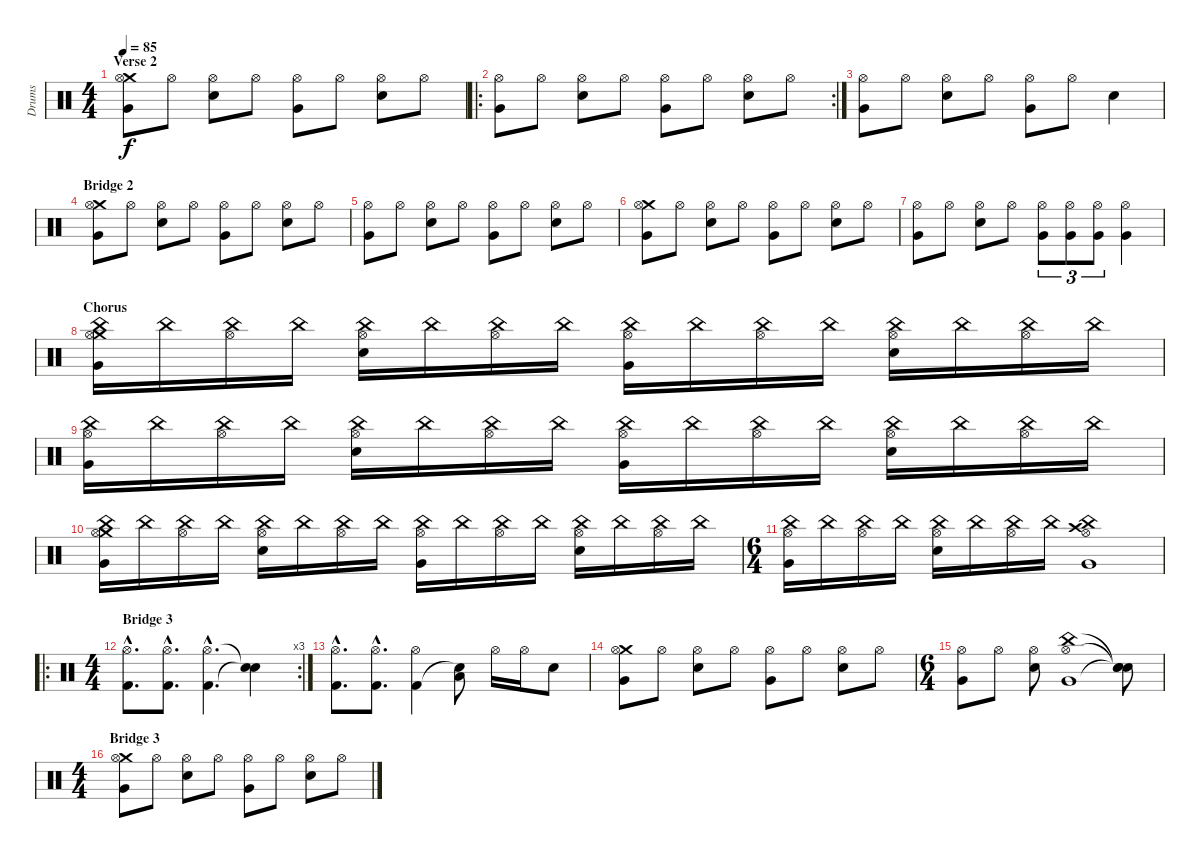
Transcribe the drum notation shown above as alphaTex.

\track ("Drums" "Drums") {instrument percussion}
\staff {score}
\articulation defaults
\ts (4 4)
\section ("" "Verse 2")
\tempo 85
\clef neutral
\ks c
("Crash medium (hit)" "Hi-Hat (open)" "Very Low Tom (hit)").8{dy f} "Hi-Hat (open)".8 ("Hi-Hat (open)" "Electric Snare (hit)").8 "Hi-Hat (open)".8 ("Hi-Hat (open)" "Very Low Tom (hit)").8 "Hi-Hat (open)".8 ("Hi-Hat (open)" "Electric Snare (hit)").8 "Hi-Hat (open)".8 |
\ro
\rc 2
("Hi-Hat (open)" "Very Low Tom (hit)").8 "Hi-Hat (open)".8 ("Hi-Hat (open)" "Electric Snare (hit)").8 "Hi-Hat (open)".8 ("Hi-Hat (open)" "Very Low Tom (hit)").8 "Hi-Hat (open)".8 ("Hi-Hat (open)" "Electric Snare (hit)").8 "Hi-Hat (open)".8 |
("Hi-Hat (open)" "Very Low Tom (hit)").8 "Hi-Hat (open)".8 ("Hi-Hat (open)" "Electric Snare (hit)").8 "Hi-Hat (open)".8 ("Hi-Hat (open)" "Very Low Tom (hit)").8 "Hi-Hat (open)".8 "Snare (hit) 2".4 |
\section ("" "Bridge 2")
("Crash medium (hit)" "Hi-Hat (open)" "Very Low Tom (hit)").8 "Hi-Hat (open)".8 ("Hi-Hat (open)" "Electric Snare (hit)").8 "Hi-Hat (open)".8 ("Hi-Hat (open)" "Very Low Tom (hit)").8 "Hi-Hat (open)".8 ("Hi-Hat (open)" "Electric Snare (hit)").8 "Hi-Hat (open)".8 |
("Hi-Hat (open)" "Very Low Tom (hit)").8 "Hi-Hat (open)".8 ("Hi-Hat (open)" "Electric Snare (hit)").8 "Hi-Hat (open)".8 ("Hi-Hat (open)" "Very Low Tom (hit)").8 "Hi-Hat (open)".8 ("Hi-Hat (open)" "Electric Snare (hit)").8 "Hi-Hat (open)".8 |
("Crash medium (hit)" "Hi-Hat (open)" "Very Low Tom (hit)").8 "Hi-Hat (open)".8 ("Hi-Hat (open)" "Electric Snare (hit)").8 "Hi-Hat (open)".8 ("Hi-Hat (open)" "Very Low Tom (hit)").8 "Hi-Hat (open)".8 ("Hi-Hat (open)" "Electric Snare (hit)").8 "Hi-Hat (open)".8 |
("Hi-Hat (open)" "Very Low Tom (hit)").8 "Hi-Hat (open)".8 ("Hi-Hat (open)" "Electric Snare (hit)").8 "Hi-Hat (open)".8 ("Hi-Hat (open)" "Very Low Tom (hit)").8{tu (3 2)} ("Hi-Hat (open)" "Very Low Tom (hit)").8{tu (3 2)} ("Hi-Hat (open)" "Very Low Tom (hit)").8{tu (3 2)} ("Hi-Hat (open)" "Very Low Tom (hit)").4 |
\section ("" "Chorus")
("Crash medium (hit)" "Hi-Hat (open)" "Very Low Tom (hit)" "China (hit)").16 "China (hit)".16 ("Hi-Hat (open)" "China (hit)").16 "China (hit)".16 ("Hi-Hat (open)" "Electric Snare (hit)" "China (hit)").16 "China (hit)".16 ("Hi-Hat (open)" "China (hit)").16 "China (hit)".16 ("Hi-Hat (open)" "Very Low Tom (hit)" "China (hit)").16 "China (hit)".16 ("Hi-Hat (open)" "China (hit)").16 "China (hit)".16 ("Hi-Hat (open)" "Electric Snare (hit)" "China (hit)").16 "China (hit)".16 ("Hi-Hat (open)" "China (hit)").16 "China (hit)".16 |
("Hi-Hat (open)" "Very Low Tom (hit)" "China (hit)").16 "China (hit)".16 ("Hi-Hat (open)" "China (hit)").16 "China (hit)".16 ("Hi-Hat (open)" "Electric Snare (hit)" "China (hit)").16 "China (hit)".16 ("Hi-Hat (open)" "China (hit)").16 "China (hit)".16 ("Hi-Hat (open)" "Very Low Tom (hit)" "China (hit)").16 "China (hit)".16 ("Hi-Hat (open)" "China (hit)").16 "China (hit)".16 ("Hi-Hat (open)" "Electric Snare (hit)" "China (hit)").16 "China (hit)".16 ("Hi-Hat (open)" "China (hit)").16 "China (hit)".16 |
("Crash medium (hit)" "Hi-Hat (open)" "Very Low Tom (hit)" "China (hit)").16 "China (hit)".16 ("Hi-Hat (open)" "China (hit)").16 "China (hit)".16 ("Hi-Hat (open)" "Electric Snare (hit)" "China (hit)").16 "China (hit)".16 ("Hi-Hat (open)" "China (hit)").16 "China (hit)".16 ("Hi-Hat (open)" "Very Low Tom (hit)" "China (hit)").16 "China (hit)".16 ("Hi-Hat (open)" "China (hit)").16 "China (hit)".16 ("Hi-Hat (open)" "Electric Snare (hit)" "China (hit)").16 "China (hit)".16 ("Hi-Hat (open)" "China (hit)").16 "China (hit)".16 |
\ts (6 4)
("Hi-Hat (open)" "Very Low Tom (hit)" "China (hit)").16 "China (hit)".16 ("Hi-Hat (open)" "China (hit)").16 "China (hit)".16 ("Hi-Hat (open)" "Electric Snare (hit)" "China (hit)").16 "China (hit)".16 ("Hi-Hat (open)" "China (hit)").16 "China (hit)".16 ("Crash high (hit)" "Hi-Hat (open)" "Very Low Tom (hit)" "China (hit)").1 |
\ro
\rc 3
\ts (4 4)
\section ("" "Bridge 3")
("Kick (hit) 2"{hac} "Hi-Hat (open)"{hac}).8{d} ("Kick (hit) 2"{hac} "Hi-Hat (open)"{hac}).8{d} ("Kick (hit) 2"{hac} "Hi-Hat (open)"{hac}).4{d} ("Snare (hit)"{t} "Snare (hit)"{t}).4 |
("Kick (hit) 2"{hac} "Hi-Hat (open)"{hac}).8{d} ("Kick (hit) 2"{hac} "Hi-Hat (open)"{hac}).8{d} ("Kick (hit) 2" "Hi-Hat (open)").4 ("Snare (hit)"{t} "Low Floor Tom (hit)").8 "Hi-Hat (open)".16 "Hi-Hat (open)".16 "Snare (hit) 2".8 |
("Crash medium (hit)" "Hi-Hat (open)" "Very Low Tom (hit)").8 "Hi-Hat (open)".8 ("Hi-Hat (open)" "Electric Snare (hit)").8 "Hi-Hat (open)".8 ("Hi-Hat (open)" "Very Low Tom (hit)").8 "Hi-Hat (open)".8 ("Hi-Hat (open)" "Electric Snare (hit)").8 "Hi-Hat (open)".8 |
\ts (6 4)
("Hi-Hat (open)" "Very Low Tom (hit)").8 "Hi-Hat (open)".8 ("Hi-Hat (open)" "Electric Snare (hit)").8 ("China (hit)" "Hi-Hat (open)" "Very Low Tom (hit)").1 ("Snare (hit)"{t} "Snare (hit)"{t} "Snare (hit)"{t}).8 |
\ts (4 4)
\section ("" "Bridge 3")
("Crash medium (hit)" "Hi-Hat (open)" "Very Low Tom (hit)").8 "Hi-Hat (open)".8 ("Hi-Hat (open)" "Electric Snare (hit)").8 "Hi-Hat (open)".8 ("Hi-Hat (open)" "Very Low Tom (hit)").8 "Hi-Hat (open)".8 ("Hi-Hat (open)" "Electric Snare (hit)").8 "Hi-Hat (open)".8
